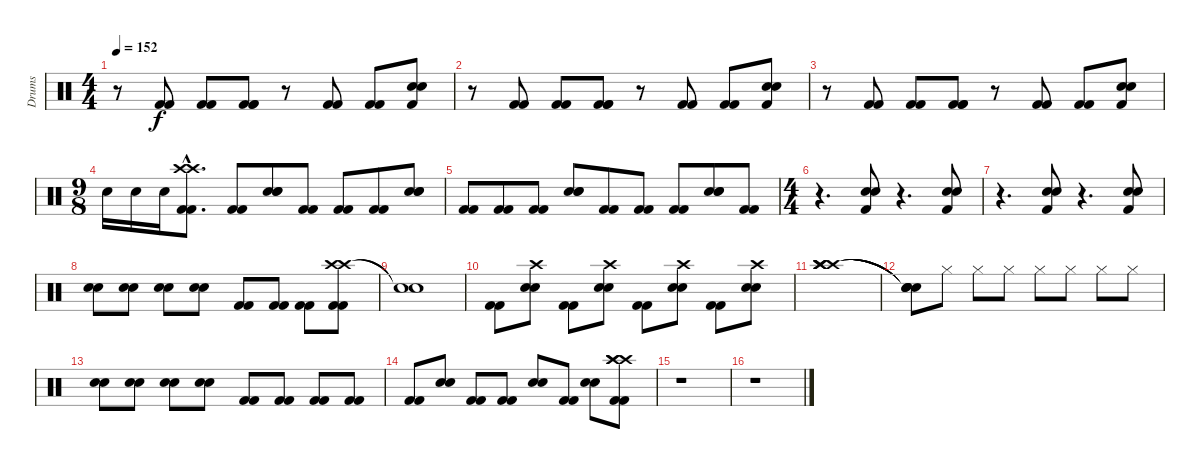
\track ("Drums" "Drums") {instrument percussion}
\staff {score}
\articulation defaults
\ts (4 4)
\tempo 152
\clef neutral
\ks c
r.8{dy f} ("Kick (hit) 2" "Kick (hit) 2").8 ("Kick (hit) 2" "Kick (hit) 2").8 ("Kick (hit) 2" "Kick (hit) 2" "Kick (hit) 2").8 r.8 ("Kick (hit) 2" "Kick (hit) 2").8 ("Kick (hit) 2" "Kick (hit) 2").8 ("Snare (hit) 2" "Snare (hit) 2" "Kick (hit) 2").8 |
r.8 ("Kick (hit) 2" "Kick (hit) 2").8 ("Kick (hit) 2" "Kick (hit) 2").8 ("Kick (hit) 2" "Kick (hit) 2" "Kick (hit) 2").8 r.8 ("Kick (hit) 2" "Kick (hit) 2").8 ("Kick (hit) 2" "Kick (hit) 2").8 ("Snare (hit) 2" "Snare (hit) 2" "Kick (hit) 2").8 |
r.8 ("Kick (hit) 2" "Kick (hit) 2").8 ("Kick (hit) 2" "Kick (hit) 2").8 ("Kick (hit) 2" "Kick (hit) 2" "Kick (hit) 2").8 r.8 ("Kick (hit) 2" "Kick (hit) 2").8 ("Kick (hit) 2" "Kick (hit) 2").8 ("Snare (hit) 2" "Snare (hit) 2" "Kick (hit) 2").8 |
\ts (9 8)
"Snare (hit) 2".16 "Snare (hit) 2".16 "Snare (hit) 2".16 ("Crash high (hit)"{hac} "Crash high (hit)"{hac} "Kick (hit) 2"{hac} "Kick (hit) 2"{hac}).8{d} ("Kick (hit) 2" "Kick (hit) 2").8 ("Snare (hit) 2" "Snare (hit) 2" "Snare (hit) 2").8 ("Kick (hit) 2" "Kick (hit) 2").8 ("Kick (hit) 2" "Kick (hit) 2").8 ("Kick (hit) 2" "Kick (hit) 2").8 ("Snare (hit) 2" "Snare (hit) 2" "Snare (hit) 2").8 |
("Kick (hit) 2" "Kick (hit) 2").8 ("Kick (hit) 2" "Kick (hit) 2").8 ("Kick (hit) 2" "Kick (hit) 2").8 ("Snare (hit) 2" "Snare (hit) 2" "Snare (hit) 2").8 ("Kick (hit) 2" "Kick (hit) 2").8 ("Kick (hit) 2" "Kick (hit) 2").8 ("Kick (hit) 2" "Kick (hit) 2").8 ("Snare (hit) 2" "Snare (hit) 2" "Snare (hit) 2").8 ("Kick (hit) 2" "Kick (hit) 2").8 |
\ts (4 4)
r.4{d} ("Kick (hit) 2" "Snare (hit) 2" "Snare (hit) 2").8 r.4{d} ("Kick (hit) 2" "Snare (hit) 2" "Snare (hit) 2").8 |
r.4{d} ("Kick (hit) 2" "Snare (hit) 2" "Snare (hit) 2").8 r.4{d} ("Kick (hit) 2" "Snare (hit) 2" "Snare (hit) 2").8 |
("Snare (hit) 2" "Snare (hit) 2").8 ("Snare (hit) 2" "Snare (hit) 2").8 ("Snare (hit) 2" "Snare (hit) 2").8 ("Snare (hit) 2" "Snare (hit) 2").8 ("Kick (hit) 2" "Kick (hit) 2").8 ("Kick (hit) 2" "Kick (hit) 2").8 ("Kick (hit) 2" "Kick (hit) 2").8 ("Crash high (hit)" "Crash high (hit)" "Kick (hit) 2" "Kick (hit) 2").8 |
("Snare (hit)"{t} "Snare (hit)"{t}).1 |
("Kick (hit) 2" "Kick (hit) 2").8 ("Snare (hit) 2" "Snare (hit) 2" "Crash high (hit)").8 ("Kick (hit) 2" "Kick (hit) 2").8 ("Snare (hit) 2" "Snare (hit) 2" "Crash high (hit)").8 ("Kick (hit) 2" "Kick (hit) 2").8 ("Snare (hit) 2" "Snare (hit) 2" "Crash high (hit)").8 ("Kick (hit) 2" "Kick (hit) 2").8 ("Snare (hit) 2" "Snare (hit) 2" "Crash high (hit)").8 |
("Crash high (hit)" "Crash high (hit)" "Crash high (hit)" "Crash high (hit)").1 |
("Snare (hit)"{t} "Snare (hit)"{t} "Snare (hit)"{t} "Snare (hit)"{t}).8 "Hi-Hat (closed)".8 "Hi-Hat (closed)".8 "Hi-Hat (closed)".8 "Hi-Hat (closed)".8 "Hi-Hat (closed)".8 "Hi-Hat (closed)".8 "Hi-Hat (closed)".8 |
("Snare (hit) 2" "Snare (hit) 2").8 ("Snare (hit) 2" "Snare (hit) 2").8 ("Snare (hit) 2" "Snare (hit) 2").8 ("Snare (hit) 2" "Snare (hit) 2").8 ("Kick (hit) 2" "Kick (hit) 2").8 ("Kick (hit) 2" "Kick (hit) 2").8 ("Kick (hit) 2" "Kick (hit) 2").8 ("Kick (hit) 2" "Kick (hit) 2").8 |
("Kick (hit) 2" "Kick (hit) 2").8 ("Snare (hit) 2" "Snare (hit) 2").8 ("Kick (hit) 2" "Kick (hit) 2").8 ("Kick (hit) 2" "Kick (hit) 2").8 ("Snare (hit) 2" "Snare (hit) 2").8 ("Kick (hit) 2" "Kick (hit) 2").8 ("Snare (hit) 2" "Snare (hit) 2").8 ("Crash high (hit)" "Kick (hit) 2" "Crash high (hit)" "Crash high (hit)" "Kick (hit) 2").8 |
r.1 |
r.1
